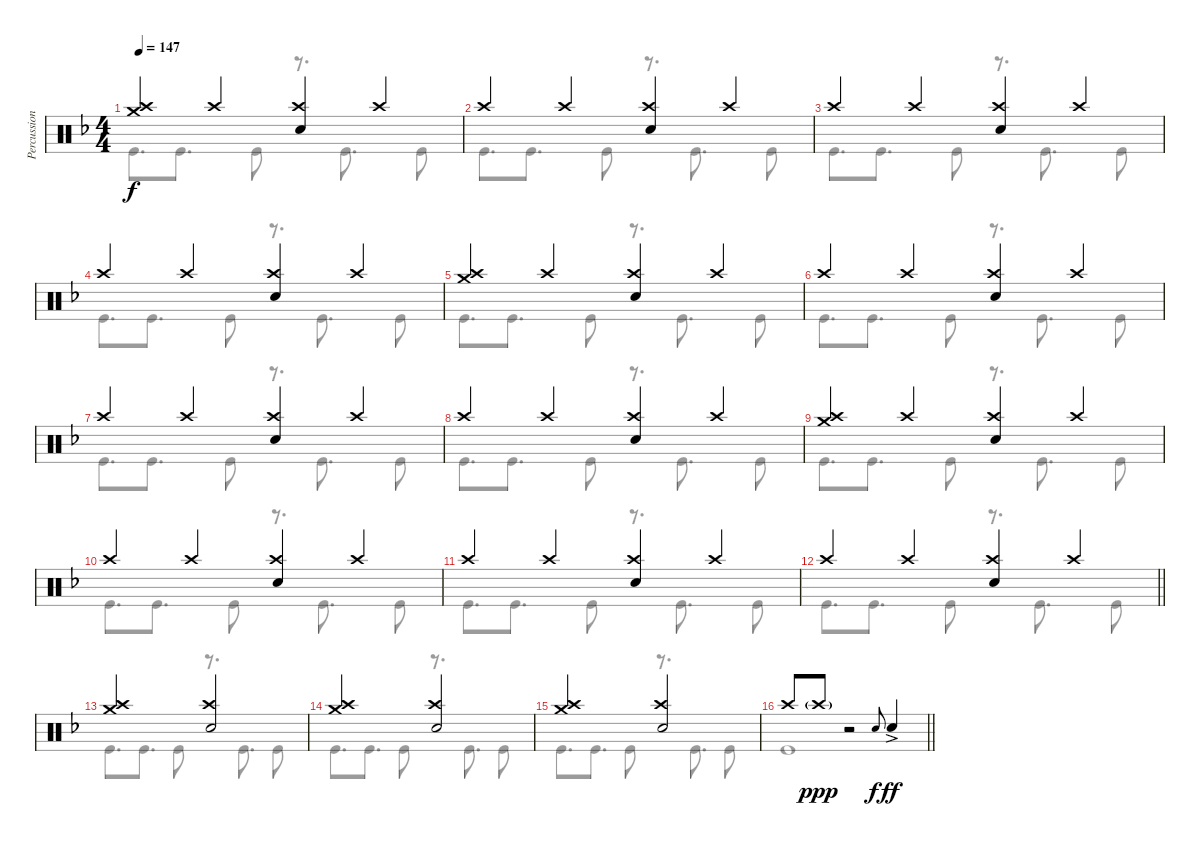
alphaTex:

\track ("Percussion" "Percussion") {instrument percussion}
\staff {score}
\articulation defaults
\voice
\ts (4 4)
\tempo 147
\clef neutral
\ks dminor
("Crash medium (hit)" "Crash high (hit)").4{dy f} "Crash high (hit)".4 ("Crash high (hit)" "Electric Snare (hit)").4 "Crash high (hit)".4 |
"Crash high (hit)".4 "Crash high (hit)".4 ("Crash high (hit)" "Electric Snare (hit)").4 "Crash high (hit)".4 |
"Crash high (hit)".4 "Crash high (hit)".4 ("Crash high (hit)" "Electric Snare (hit)").4 "Crash high (hit)".4 |
"Crash high (hit)".4 "Crash high (hit)".4 ("Crash high (hit)" "Electric Snare (hit)").4 "Crash high (hit)".4 |
("Crash medium (hit)" "Crash high (hit)").4 "Crash high (hit)".4 ("Crash high (hit)" "Electric Snare (hit)").4 "Crash high (hit)".4 |
"Crash high (hit)".4 "Crash high (hit)".4 ("Crash high (hit)" "Electric Snare (hit)").4 "Crash high (hit)".4 |
"Crash high (hit)".4 "Crash high (hit)".4 ("Crash high (hit)" "Electric Snare (hit)").4 "Crash high (hit)".4 |
"Crash high (hit)".4 "Crash high (hit)".4 ("Crash high (hit)" "Electric Snare (hit)").4 "Crash high (hit)".4 |
("Crash medium (hit)" "Crash high (hit)").4 "Crash high (hit)".4 ("Crash high (hit)" "Electric Snare (hit)").4 "Crash high (hit)".4 |
"Crash high (hit)".4 "Crash high (hit)".4 ("Crash high (hit)" "Electric Snare (hit)").4 "Crash high (hit)".4 |
"Crash high (hit)".4 "Crash high (hit)".4 ("Crash high (hit)" "Electric Snare (hit)").4 "Crash high (hit)".4 |
\barLineRight lightlight "Crash high (hit)".4 "Crash high (hit)".4
("Crash high (hit)" "Electric Snare (hit)").4 "Crash high (hit)".4 |
\section ("" "")
("Crash medium (hit)" "Crash high (hit)").2 ("Crash high (hit)" "Electric Snare (hit)").2 |
("Crash medium (hit)" "Crash high (hit)").2 ("Crash high (hit)" "Electric Snare (hit)").2 |
("Crash medium (hit)" "Crash high (hit)").2 ("Crash high (hit)" "Electric Snare (hit)").2 |
\barLineRight lightlight "Crash high (hit)".8 "Crash high (hit)"{g}.8{dy ppp}
r.2 "Electric Snare (hit)".8{gr onbeat dy f} "Electric Snare (hit)"{ac}.4{dy ff}
\voice
\clef neutral
\ottava regular
\simile none
\ks dminor "Kick (hit)".8{d dy f} "Kick (hit)".8{d} "Kick (hit)".8
r.8{d} "Kick (hit)".8{d} "Kick (hit)".8 |
"Kick (hit)".8{d} "Kick (hit)".8{d} "Kick (hit)".8 r.8{d} "Kick (hit)".8{d} "Kick (hit)".8 |
"Kick (hit)".8{d} "Kick (hit)".8{d} "Kick (hit)".8 r.8{d} "Kick (hit)".8{d} "Kick (hit)".8 |
"Kick (hit)".8{d} "Kick (hit)".8{d} "Kick (hit)".8 r.8{d} "Kick (hit)".8{d} "Kick (hit)".8 |
"Kick (hit)".8{d} "Kick (hit)".8{d} "Kick (hit)".8 r.8{d} "Kick (hit)".8{d} "Kick (hit)".8 |
"Kick (hit)".8{d} "Kick (hit)".8{d} "Kick (hit)".8 r.8{d} "Kick (hit)".8{d} "Kick (hit)".8 |
"Kick (hit)".8{d} "Kick (hit)".8{d} "Kick (hit)".8 r.8{d} "Kick (hit)".8{d} "Kick (hit)".8 |
"Kick (hit)".8{d} "Kick (hit)".8{d} "Kick (hit)".8 r.8{d} "Kick (hit)".8{d} "Kick (hit)".8 |
"Kick (hit)".8{d} "Kick (hit)".8{d} "Kick (hit)".8 r.8{d} "Kick (hit)".8{d} "Kick (hit)".8 |
"Kick (hit)".8{d} "Kick (hit)".8{d} "Kick (hit)".8 r.8{d} "Kick (hit)".8{d} "Kick (hit)".8 |
"Kick (hit)".8{d} "Kick (hit)".8{d} "Kick (hit)".8 r.8{d} "Kick (hit)".8{d} "Kick (hit)".8 |
\barLineRight lightlight "Kick (hit)".8{d} "Kick (hit)".8{d} "Kick (hit)".8
r.8{d} "Kick (hit)".8{d} "Kick (hit)".8 |
"Kick (hit)".8{d} "Kick (hit)".8{d} "Kick (hit)".8 r.8{d} "Kick (hit)".8{d} "Kick (hit)".8 |
"Kick (hit)".8{d} "Kick (hit)".8{d} "Kick (hit)".8 r.8{d} "Kick (hit)".8{d} "Kick (hit)".8 |
"Kick (hit)".8{d} "Kick (hit)".8{d} "Kick (hit)".8 r.8{d} "Kick (hit)".8{d} "Kick (hit)".8 |
\barLineRight lightlight "Kick (hit)".1
